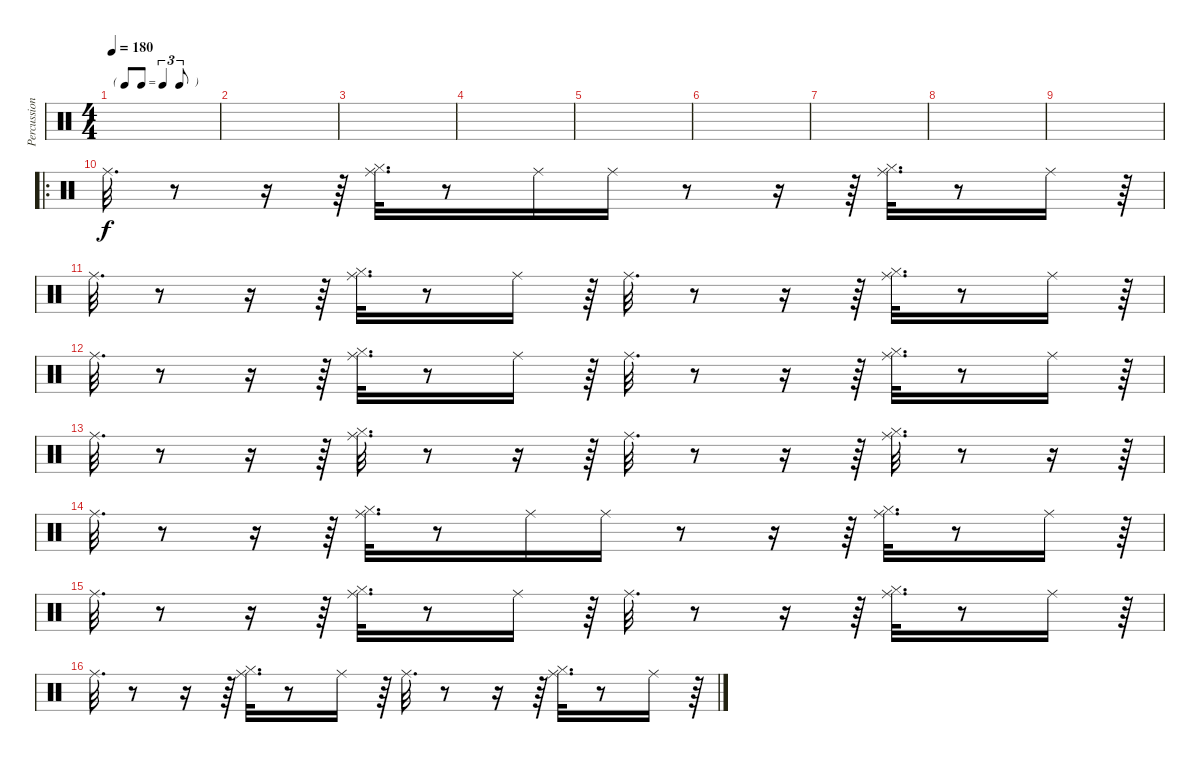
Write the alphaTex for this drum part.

\track ("Percussions" "Percussion") {instrument percussion}
\staff {score}
\articulation defaults
\ts (4 4)
\tf triplet8th
\tempo 180
\clef neutral
\ks c
|
|
|
|
|
|
|
|
|
\ro "Ride (middle)".32{d}
r.8 r.16 r.64 ("Hi-Hat (closed)" "Ride (middle)").32{d} r.8 "Ride (middle)".16 "Ride (middle)".16 r.8 r.16 r.64 ("Hi-Hat (closed)" "Ride (middle)").32{d} r.8 "Ride (middle)".16 r.64 |
"Ride (middle)".32{d} r.8 r.16 r.64 ("Hi-Hat (closed)" "Ride (middle)").32{d} r.8 "Ride (middle)".16 r.64 "Ride (middle)".32{d} r.8 r.16 r.64 ("Hi-Hat (closed)" "Ride (middle)").32{d} r.8 "Ride (middle)".16 r.64 |
"Ride (middle)".32{d} r.8 r.16 r.64 ("Hi-Hat (closed)" "Ride (middle)").32{d} r.8 "Ride (middle)".16 r.64 "Ride (middle)".32{d} r.8 r.16 r.64 ("Hi-Hat (closed)" "Ride (middle)").32{d} r.8 "Ride (middle)".16 r.64 |
"Ride (middle)".32{d} r.8 r.16 r.64 ("Hi-Hat (closed)" "Ride (middle)").32{d} r.8 r.16 r.64 "Ride (middle)".32{d} r.8 r.16 r.64 ("Hi-Hat (closed)" "Ride (middle)").32{d} r.8 r.16 r.64 |
"Ride (middle)".32{d} r.8 r.16 r.64 ("Hi-Hat (closed)" "Ride (middle)").32{d} r.8 "Ride (middle)".16 "Ride (middle)".16 r.8 r.16 r.64 ("Hi-Hat (closed)" "Ride (middle)").32{d} r.8 "Ride (middle)".16 r.64 |
"Ride (middle)".32{d} r.8 r.16 r.64 ("Hi-Hat (closed)" "Ride (middle)").32{d} r.8 "Ride (middle)".16 r.64 "Ride (middle)".32{d} r.8 r.16 r.64 ("Hi-Hat (closed)" "Ride (middle)").32{d} r.8 "Ride (middle)".16 r.64 |
"Ride (middle)".32{d} r.8 r.16 r.64 ("Hi-Hat (closed)" "Ride (middle)").32{d} r.8 "Ride (middle)".16 r.64 "Ride (middle)".32{d} r.8 r.16 r.64 ("Hi-Hat (closed)" "Ride (middle)").32{d} r.8 "Ride (middle)".16 r.64
